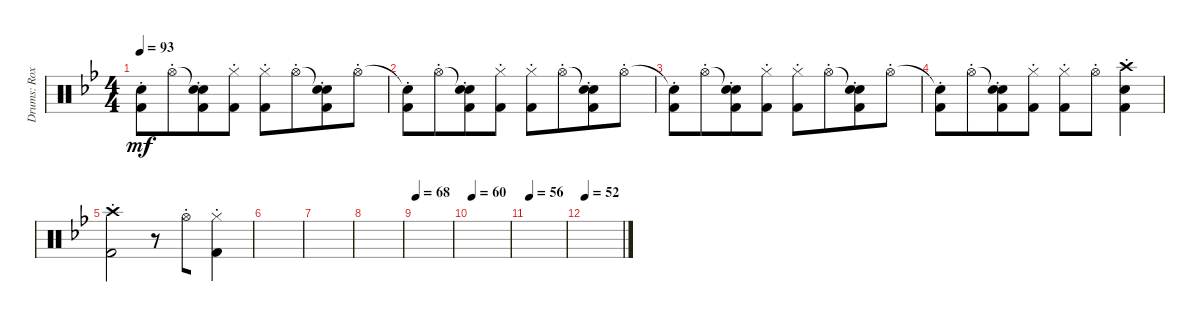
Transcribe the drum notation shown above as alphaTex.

\track ("Drums: Roxy" "Drums: Rox") {instrument percussion}
\staff {score}
\articulation defaults
\ts (4 4)
\tempo 93
\clef neutral
\ks bb
("Snare (hit)"{t} "Kick (hit) 2"{st}).8{dy mf} "Hi-Hat (open)"{st}.8{beam merge} ("Snare (hit)"{t} "Snare (hit) 2"{st} "Kick (hit) 2"{st}).8 ("Hi-Hat (closed)"{st} "Kick (hit) 2"{st}).8{beam split} ("Hi-Hat (closed)"{st} "Kick (hit) 2"{st}).8 "Hi-Hat (open)"{st}.8{beam merge} ("Snare (hit)"{t} "Snare (hit) 2"{st} "Kick (hit) 2"{st}).8 "Hi-Hat (open)"{st}.8 |
("Snare (hit)"{t} "Kick (hit) 2"{st}).8 "Hi-Hat (open)"{st}.8{beam merge} ("Snare (hit)"{t} "Snare (hit) 2"{st} "Kick (hit) 2"{st}).8 ("Hi-Hat (closed)"{st} "Kick (hit) 2"{st}).8{beam split} ("Hi-Hat (closed)"{st} "Kick (hit) 2"{st}).8 "Hi-Hat (open)"{st}.8{beam merge} ("Snare (hit)"{t} "Snare (hit) 2"{st} "Kick (hit) 2"{st}).8 "Hi-Hat (open)"{st}.8 |
("Snare (hit)"{t} "Kick (hit) 2"{st}).8 "Hi-Hat (open)"{st}.8{beam merge} ("Snare (hit)"{t} "Snare (hit) 2"{st} "Kick (hit) 2"{st}).8 ("Hi-Hat (closed)"{st} "Kick (hit) 2"{st}).8{beam split} ("Hi-Hat (closed)"{st} "Kick (hit) 2"{st}).8 "Hi-Hat (open)"{st}.8{beam merge} ("Snare (hit)"{t} "Snare (hit) 2"{st} "Kick (hit) 2"{st}).8 "Hi-Hat (open)"{st}.8 |
("Snare (hit)"{t} "Kick (hit) 2"{st}).8 "Hi-Hat (open)"{st}.8{beam merge} ("Snare (hit)"{t} "Snare (hit) 2"{st} "Kick (hit) 2"{st}).8 ("Hi-Hat (closed)"{st} "Kick (hit) 2"{st}).8{beam split} ("Hi-Hat (closed)"{st} "Kick (hit) 2"{st}).8 "Hi-Hat (open)"{st}.8{beam merge} ("Crash high (hit)"{st} "Snare (hit) 2"{st} "Kick (hit) 2"{st}).4 |
("Crash high (hit)"{st} "Kick (hit) 2"{st}).2{beam split} r.8 "Hi-Hat (open)"{st}.8{beam merge} ("Hi-Hat (closed)"{st} "Kick (hit) 2"{st}).4 |
|
|
|
\tempo 68
|
\tempo 60
|
\tempo (56 0.03125)
|
\tempo 52
